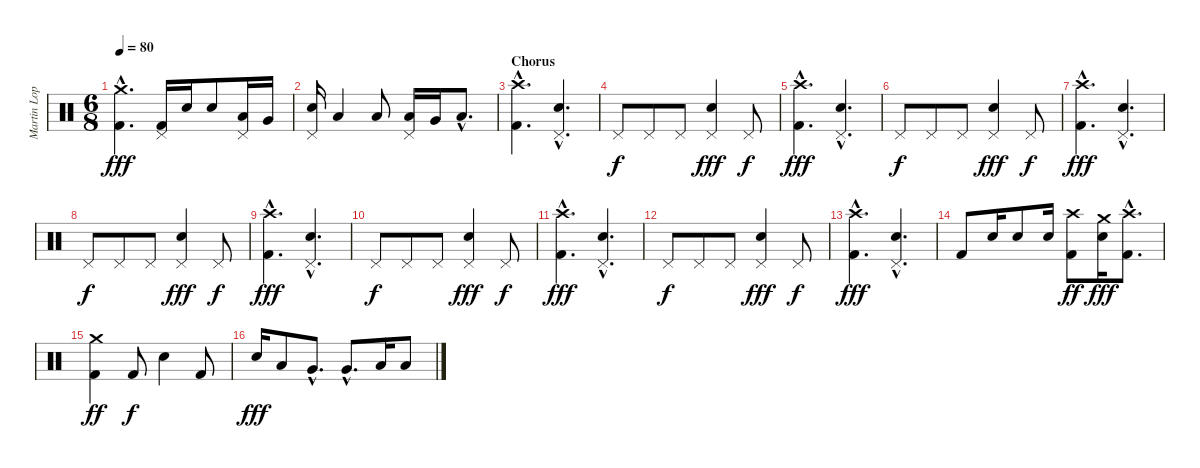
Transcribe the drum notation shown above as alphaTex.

\track ("Martin Lopez" "Martin Lop") {instrument percussion}
\staff {score}
\articulation defaults
\ts (6 8)
\tempo 80
\clef neutral
\ks c
("Crash medium (hit)"{hac} "Kick (hit) 2"{hac}).4{d dy fff} ("Pedal Hi-Hat (hit)" "Kick (hit) 2").16 "Electric Snare (hit)".16 "Electric Snare (hit)".8 ("Pedal Hi-Hat (hit)" "Low Tom (hit)").16 "Very Low Tom (hit)".16 |
("Pedal Hi-Hat (hit)" "Electric Snare (hit)").16 "Low Tom (hit)".4 "Low Tom (hit)".8 ("Pedal Hi-Hat (hit)" "Low Tom (hit)").16 "Very Low Tom (hit)".16 "Low Floor Tom (hit)"{hac}.8{d} |
\section ("" "Chorus")
("Crash high (hit)"{hac} "Kick (hit) 2"{hac}).4{d volume 9} ("Pedal Hi-Hat (hit)"{hac} "Electric Snare (hit)"{hac}).4{d} |
"Pedal Hi-Hat (hit)".8{dy f} "Pedal Hi-Hat (hit)".8 "Pedal Hi-Hat (hit)".8 ("Pedal Hi-Hat (hit)" "Electric Snare (hit)").4{dy fff} "Pedal Hi-Hat (hit)".8{dy f} |
("Crash high (hit)"{hac} "Kick (hit) 2"{hac}).4{d dy fff} ("Pedal Hi-Hat (hit)"{hac} "Electric Snare (hit)"{hac}).4{d} |
"Pedal Hi-Hat (hit)".8{dy f} "Pedal Hi-Hat (hit)".8 "Pedal Hi-Hat (hit)".8 ("Pedal Hi-Hat (hit)" "Electric Snare (hit)").4{dy fff} "Pedal Hi-Hat (hit)".8{dy f} |
("Crash high (hit)"{hac} "Kick (hit) 2"{hac}).4{d dy fff} ("Pedal Hi-Hat (hit)"{hac} "Electric Snare (hit)"{hac}).4{d} |
"Pedal Hi-Hat (hit)".8{dy f} "Pedal Hi-Hat (hit)".8 "Pedal Hi-Hat (hit)".8 ("Pedal Hi-Hat (hit)" "Electric Snare (hit)").4{dy fff} "Pedal Hi-Hat (hit)".8{dy f} |
("Crash high (hit)"{hac} "Kick (hit) 2"{hac}).4{d dy fff} ("Pedal Hi-Hat (hit)"{hac} "Electric Snare (hit)"{hac}).4{d} |
"Pedal Hi-Hat (hit)".8{dy f} "Pedal Hi-Hat (hit)".8 "Pedal Hi-Hat (hit)".8 ("Pedal Hi-Hat (hit)" "Electric Snare (hit)").4{dy fff} "Pedal Hi-Hat (hit)".8{dy f} |
("Crash high (hit)"{hac} "Kick (hit) 2"{hac}).4{d dy fff} ("Pedal Hi-Hat (hit)"{hac} "Electric Snare (hit)"{hac}).4{d} |
"Pedal Hi-Hat (hit)".8{dy f} "Pedal Hi-Hat (hit)".8 "Pedal Hi-Hat (hit)".8 ("Pedal Hi-Hat (hit)" "Electric Snare (hit)").4{dy fff} "Pedal Hi-Hat (hit)".8{dy f} |
("Crash high (hit)"{hac} "Kick (hit) 2"{hac}).4{d dy fff} ("Pedal Hi-Hat (hit)"{hac} "Electric Snare (hit)"{hac}).4{d} |
"Kick (hit) 2".8 "Electric Snare (hit)".16 "Electric Snare (hit)".8 "Electric Snare (hit)".16 ("Crash high (hit)" "Kick (hit) 2").8{dy ff} ("Crash medium (hit)" "Electric Snare (hit)").16{dy fff} ("Crash high (hit)"{hac} "Kick (hit) 2"{hac}).8{d} |
("Crash medium (hit)" "Kick (hit) 2").4{dy ff} "Kick (hit) 2".8{dy f} "Electric Snare (hit)".4 "Kick (hit) 2".8 |
"Electric Snare (hit)".16{dy fff} "Low Tom (hit)".8 "Very Low Tom (hit)"{hac}.8{d} "Very Low Tom (hit)"{hac}.8{d} "Low Floor Tom (hit)".16 "Low Floor Tom (hit)".8
